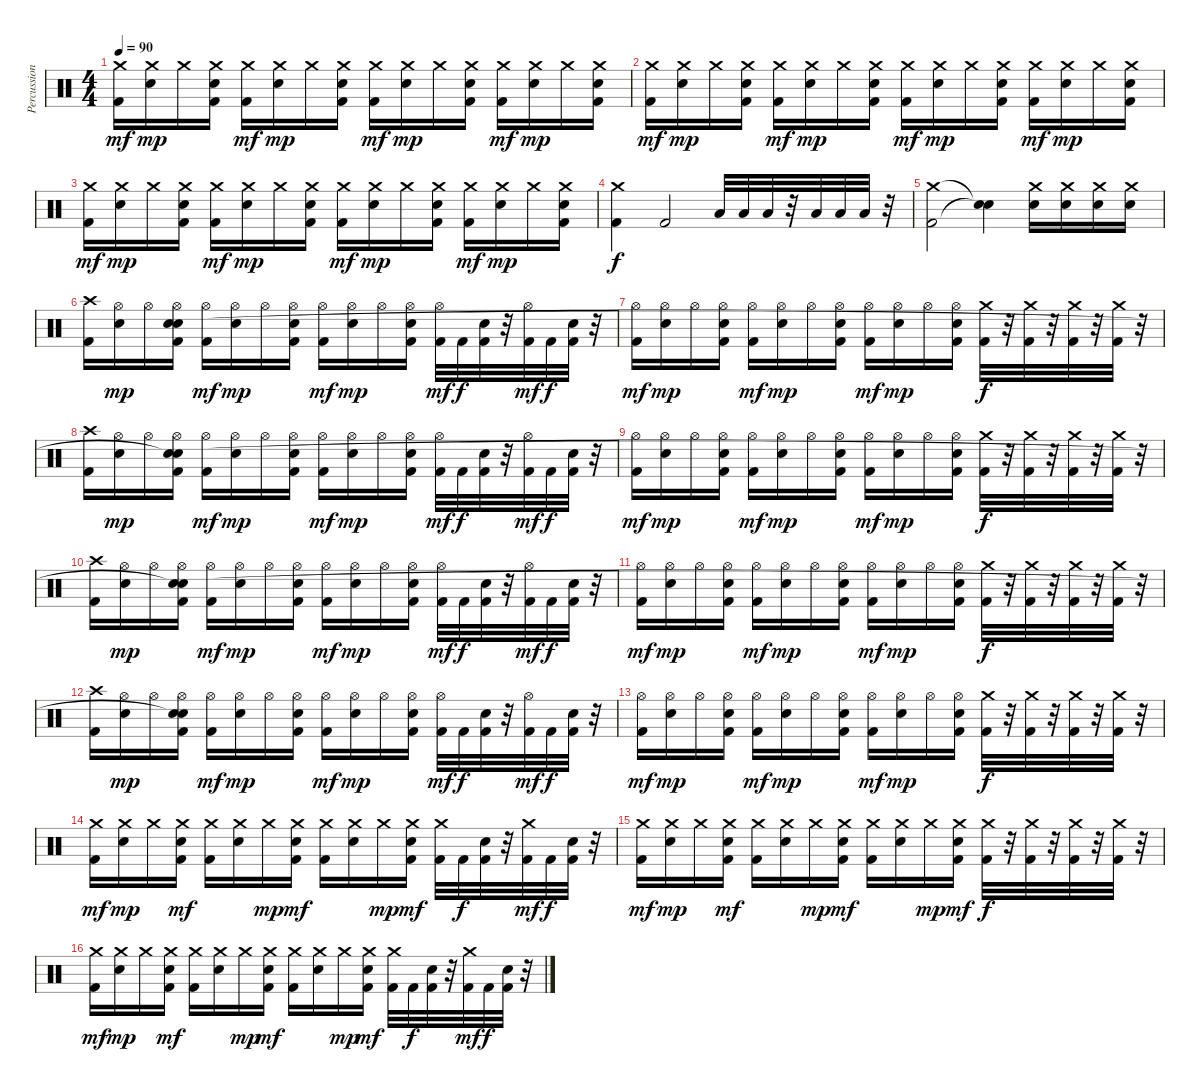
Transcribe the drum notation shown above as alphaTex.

\track ("Percussioni" "Percussion") {instrument percussion}
\staff {score}
\articulation defaults
\ts (4 4)
\tempo 90
\clef neutral
\ks c
("Kick (hit) 2" "Crash medium (hit)").16{dy mf} ("Electric Snare (hit)" "Crash medium (hit)").16{dy mp} "Crash medium (hit)".16 ("Kick (hit) 2" "Electric Snare (hit)" "Crash medium (hit)").16 ("Kick (hit) 2" "Crash medium (hit)").16{dy mf} ("Electric Snare (hit)" "Crash medium (hit)").16{dy mp} "Crash medium (hit)".16 ("Kick (hit) 2" "Electric Snare (hit)" "Crash medium (hit)").16 ("Kick (hit) 2" "Crash medium (hit)").16{dy mf} ("Electric Snare (hit)" "Crash medium (hit)").16{dy mp} "Crash medium (hit)".16 ("Kick (hit) 2" "Electric Snare (hit)" "Crash medium (hit)").16 ("Kick (hit) 2" "Crash medium (hit)").16{dy mf} ("Electric Snare (hit)" "Crash medium (hit)").16{dy mp} "Crash medium (hit)".16 ("Kick (hit) 2" "Electric Snare (hit)" "Crash medium (hit)").16 |
("Kick (hit) 2" "Crash medium (hit)").16{dy mf} ("Electric Snare (hit)" "Crash medium (hit)").16{dy mp} "Crash medium (hit)".16 ("Kick (hit) 2" "Electric Snare (hit)" "Crash medium (hit)").16 ("Kick (hit) 2" "Crash medium (hit)").16{dy mf} ("Electric Snare (hit)" "Crash medium (hit)").16{dy mp} "Crash medium (hit)".16 ("Kick (hit) 2" "Electric Snare (hit)" "Crash medium (hit)").16 ("Kick (hit) 2" "Crash medium (hit)").16{dy mf} ("Electric Snare (hit)" "Crash medium (hit)").16{dy mp} "Crash medium (hit)".16 ("Kick (hit) 2" "Electric Snare (hit)" "Crash medium (hit)").16 ("Kick (hit) 2" "Crash medium (hit)").16{dy mf} ("Electric Snare (hit)" "Crash medium (hit)").16{dy mp} "Crash medium (hit)".16 ("Kick (hit) 2" "Electric Snare (hit)" "Crash medium (hit)").16 |
("Kick (hit) 2" "Crash medium (hit)").16{dy mf} ("Electric Snare (hit)" "Crash medium (hit)").16{dy mp} "Crash medium (hit)".16 ("Kick (hit) 2" "Electric Snare (hit)" "Crash medium (hit)").16 ("Kick (hit) 2" "Crash medium (hit)").16{dy mf} ("Electric Snare (hit)" "Crash medium (hit)").16{dy mp} "Crash medium (hit)".16 ("Kick (hit) 2" "Electric Snare (hit)" "Crash medium (hit)").16 ("Kick (hit) 2" "Crash medium (hit)").16{dy mf} ("Electric Snare (hit)" "Crash medium (hit)").16{dy mp} "Crash medium (hit)".16 ("Kick (hit) 2" "Electric Snare (hit)" "Crash medium (hit)").16 ("Kick (hit) 2" "Crash medium (hit)").16{dy mf} ("Electric Snare (hit)" "Crash medium (hit)").16{dy mp} "Crash medium (hit)".16 ("Kick (hit) 2" "Electric Snare (hit)" "Crash medium (hit)").16 |
("Kick (hit) 2" "Crash medium (hit)").4{dy f} "Kick (hit) 2".2 "Low Tom (hit)".32 "Low Tom (hit)".32 "Low Tom (hit)".32 r.32 "Low Tom (hit)".32 "Low Tom (hit)".32 "Low Tom (hit)".32 r.32 |
("Kick (hit) 2" "Crash medium (hit)").2 ("Snare (hit)"{t} "Snare (hit)"{t}).4 ("Electric Snare (hit)" "Crash medium (hit)").16 ("Electric Snare (hit)" "Crash medium (hit)").16 ("Electric Snare (hit)" "Crash medium (hit)").16 ("Electric Snare (hit)" "Crash medium (hit)").16 |
("Kick (hit) 2" "Crash high (hit)").16 ("Electric Snare (hit)" "Hi-Hat (open)").16{dy mp} "Hi-Hat (open)".16 ("Kick (hit) 2" "Electric Snare (hit)" "Hi-Hat (open)" "Snare (hit)").16 ("Kick (hit) 2" "Hi-Hat (open)").16{dy mf} ("Electric Snare (hit)" "Hi-Hat (open)").16{dy mp} "Hi-Hat (open)".16 ("Kick (hit) 2" "Electric Snare (hit)" "Hi-Hat (open)").16 ("Kick (hit) 2" "Hi-Hat (open)").16{dy mf} ("Electric Snare (hit)" "Hi-Hat (open)").16{dy mp} "Hi-Hat (open)".16 ("Kick (hit) 2" "Electric Snare (hit)" "Hi-Hat (open)").16 ("Kick (hit) 2" "Hi-Hat (open)").32{dy mf} "Kick (hit) 2".32{dy f} ("Kick (hit) 2" "Electric Snare (hit)").32 r.32 ("Kick (hit) 2" "Hi-Hat (open)").32{dy mf} "Kick (hit) 2".32{dy f} ("Kick (hit) 2" "Electric Snare (hit)").32 r.32 |
("Kick (hit) 2" "Hi-Hat (open)").16{dy mf} ("Electric Snare (hit)" "Hi-Hat (open)").16{dy mp} "Hi-Hat (open)".16 ("Kick (hit) 2" "Electric Snare (hit)" "Hi-Hat (open)").16 ("Kick (hit) 2" "Hi-Hat (open)").16{dy mf} ("Electric Snare (hit)" "Hi-Hat (open)").16{dy mp} "Hi-Hat (open)".16 ("Kick (hit) 2" "Electric Snare (hit)" "Hi-Hat (open)").16 ("Kick (hit) 2" "Hi-Hat (open)").16{dy mf} ("Electric Snare (hit)" "Hi-Hat (open)").16{dy mp} "Hi-Hat (open)".16 ("Kick (hit) 2" "Electric Snare (hit)" "Hi-Hat (open)").16 ("Kick (hit) 2" "Crash medium (hit)").32{dy f} r.32 ("Kick (hit) 2" "Crash medium (hit)").32 r.32 ("Kick (hit) 2" "Crash medium (hit)").32 r.32 ("Kick (hit) 2" "Crash medium (hit)").32 r.32 |
("Kick (hit) 2" "Crash high (hit)").16 ("Electric Snare (hit)" "Hi-Hat (open)").16{dy mp} "Hi-Hat (open)".16 ("Kick (hit) 2" "Electric Snare (hit)" "Hi-Hat (open)" "Snare (hit)"{t}).16 ("Kick (hit) 2" "Hi-Hat (open)").16{dy mf} ("Electric Snare (hit)" "Hi-Hat (open)").16{dy mp} "Hi-Hat (open)".16 ("Kick (hit) 2" "Electric Snare (hit)" "Hi-Hat (open)").16 ("Kick (hit) 2" "Hi-Hat (open)").16{dy mf} ("Electric Snare (hit)" "Hi-Hat (open)").16{dy mp} "Hi-Hat (open)".16 ("Kick (hit) 2" "Electric Snare (hit)" "Hi-Hat (open)").16 ("Kick (hit) 2" "Hi-Hat (open)").32{dy mf} "Kick (hit) 2".32{dy f} ("Kick (hit) 2" "Electric Snare (hit)").32 r.32 ("Kick (hit) 2" "Hi-Hat (open)").32{dy mf} "Kick (hit) 2".32{dy f} ("Kick (hit) 2" "Electric Snare (hit)").32 r.32 |
("Kick (hit) 2" "Hi-Hat (open)").16{dy mf} ("Electric Snare (hit)" "Hi-Hat (open)").16{dy mp} "Hi-Hat (open)".16 ("Kick (hit) 2" "Electric Snare (hit)" "Hi-Hat (open)").16 ("Kick (hit) 2" "Hi-Hat (open)").16{dy mf} ("Electric Snare (hit)" "Hi-Hat (open)").16{dy mp} "Hi-Hat (open)".16 ("Kick (hit) 2" "Electric Snare (hit)" "Hi-Hat (open)").16 ("Kick (hit) 2" "Hi-Hat (open)").16{dy mf} ("Electric Snare (hit)" "Hi-Hat (open)").16{dy mp} "Hi-Hat (open)".16 ("Kick (hit) 2" "Electric Snare (hit)" "Hi-Hat (open)").16 ("Kick (hit) 2" "Crash medium (hit)").32{dy f} r.32 ("Kick (hit) 2" "Crash medium (hit)").32 r.32 ("Kick (hit) 2" "Crash medium (hit)").32 r.32 ("Kick (hit) 2" "Crash medium (hit)").32 r.32 |
("Kick (hit) 2" "Crash high (hit)").16 ("Electric Snare (hit)" "Hi-Hat (open)").16{dy mp} "Hi-Hat (open)".16 ("Kick (hit) 2" "Electric Snare (hit)" "Hi-Hat (open)" "Snare (hit)"{t}).16 ("Kick (hit) 2" "Hi-Hat (open)").16{dy mf} ("Electric Snare (hit)" "Hi-Hat (open)").16{dy mp} "Hi-Hat (open)".16 ("Kick (hit) 2" "Electric Snare (hit)" "Hi-Hat (open)").16 ("Kick (hit) 2" "Hi-Hat (open)").16{dy mf} ("Electric Snare (hit)" "Hi-Hat (open)").16{dy mp} "Hi-Hat (open)".16 ("Kick (hit) 2" "Electric Snare (hit)" "Hi-Hat (open)").16 ("Kick (hit) 2" "Hi-Hat (open)").32{dy mf} "Kick (hit) 2".32{dy f} ("Kick (hit) 2" "Electric Snare (hit)").32 r.32 ("Kick (hit) 2" "Hi-Hat (open)").32{dy mf} "Kick (hit) 2".32{dy f} ("Kick (hit) 2" "Electric Snare (hit)").32 r.32 |
("Kick (hit) 2" "Hi-Hat (open)").16{dy mf} ("Electric Snare (hit)" "Hi-Hat (open)").16{dy mp} "Hi-Hat (open)".16 ("Kick (hit) 2" "Electric Snare (hit)" "Hi-Hat (open)").16 ("Kick (hit) 2" "Hi-Hat (open)").16{dy mf} ("Electric Snare (hit)" "Hi-Hat (open)").16{dy mp} "Hi-Hat (open)".16 ("Kick (hit) 2" "Electric Snare (hit)" "Hi-Hat (open)").16 ("Kick (hit) 2" "Hi-Hat (open)").16{dy mf} ("Electric Snare (hit)" "Hi-Hat (open)").16{dy mp} "Hi-Hat (open)".16 ("Kick (hit) 2" "Electric Snare (hit)" "Hi-Hat (open)").16 ("Kick (hit) 2" "Crash medium (hit)").32{dy f} r.32 ("Kick (hit) 2" "Crash medium (hit)").32 r.32 ("Kick (hit) 2" "Crash medium (hit)").32 r.32 ("Kick (hit) 2" "Crash medium (hit)").32 r.32 |
("Kick (hit) 2" "Crash high (hit)").16 ("Electric Snare (hit)" "Hi-Hat (open)").16{dy mp} "Hi-Hat (open)".16 ("Kick (hit) 2" "Electric Snare (hit)" "Hi-Hat (open)" "Snare (hit)"{t}).16 ("Kick (hit) 2" "Hi-Hat (open)").16{dy mf} ("Electric Snare (hit)" "Hi-Hat (open)").16{dy mp} "Hi-Hat (open)".16 ("Kick (hit) 2" "Electric Snare (hit)" "Hi-Hat (open)").16 ("Kick (hit) 2" "Hi-Hat (open)").16{dy mf} ("Electric Snare (hit)" "Hi-Hat (open)").16{dy mp} "Hi-Hat (open)".16 ("Kick (hit) 2" "Electric Snare (hit)" "Hi-Hat (open)").16 ("Kick (hit) 2" "Hi-Hat (open)").32{dy mf} "Kick (hit) 2".32{dy f} ("Kick (hit) 2" "Electric Snare (hit)").32 r.32 ("Kick (hit) 2" "Hi-Hat (open)").32{dy mf} "Kick (hit) 2".32{dy f} ("Kick (hit) 2" "Electric Snare (hit)").32 r.32 |
("Kick (hit) 2" "Hi-Hat (open)").16{dy mf} ("Electric Snare (hit)" "Hi-Hat (open)").16{dy mp} "Hi-Hat (open)".16 ("Kick (hit) 2" "Electric Snare (hit)" "Hi-Hat (open)").16 ("Kick (hit) 2" "Hi-Hat (open)").16{dy mf} ("Electric Snare (hit)" "Hi-Hat (open)").16{dy mp} "Hi-Hat (open)".16 ("Kick (hit) 2" "Electric Snare (hit)" "Hi-Hat (open)").16 ("Kick (hit) 2" "Hi-Hat (open)").16{dy mf} ("Electric Snare (hit)" "Hi-Hat (open)").16{dy mp} "Hi-Hat (open)".16 ("Kick (hit) 2" "Electric Snare (hit)" "Hi-Hat (open)").16 ("Kick (hit) 2" "Crash medium (hit)").32{dy f} r.32 ("Kick (hit) 2" "Crash medium (hit)").32 r.32 ("Kick (hit) 2" "Crash medium (hit)").32 r.32 ("Kick (hit) 2" "Crash medium (hit)").32 r.32 |
("Kick (hit) 2" "Crash medium (hit)").16{dy mf} ("Electric Snare (hit)" "Crash medium (hit)").16{dy mp} "Crash medium (hit)".16 ("Kick (hit) 2" "Electric Snare (hit)" "Crash medium (hit)").16{dy mf} ("Kick (hit) 2" "Crash medium (hit)").16 ("Electric Snare (hit)" "Crash medium (hit)").16 "Crash medium (hit)".16{dy mp} ("Kick (hit) 2" "Electric Snare (hit)" "Crash medium (hit)").16{dy mf} ("Kick (hit) 2" "Crash medium (hit)").16 ("Electric Snare (hit)" "Crash medium (hit)").16 "Crash medium (hit)".16{dy mp} ("Kick (hit) 2" "Electric Snare (hit)" "Crash medium (hit)").16{dy mf} ("Kick (hit) 2" "Crash medium (hit)").32 "Kick (hit) 2".32{dy f} ("Kick (hit) 2" "Electric Snare (hit)").32 r.32 ("Kick (hit) 2" "Crash medium (hit)").32{dy mf} "Kick (hit) 2".32{dy f} ("Kick (hit) 2" "Electric Snare (hit)").32 r.32 |
("Kick (hit) 2" "Crash medium (hit)").16{dy mf} ("Electric Snare (hit)" "Crash medium (hit)").16{dy mp} "Crash medium (hit)".16 ("Kick (hit) 2" "Electric Snare (hit)" "Crash medium (hit)").16{dy mf} ("Kick (hit) 2" "Crash medium (hit)").16 ("Electric Snare (hit)" "Crash medium (hit)").16 "Crash medium (hit)".16{dy mp} ("Kick (hit) 2" "Electric Snare (hit)" "Crash medium (hit)").16{dy mf} ("Kick (hit) 2" "Crash medium (hit)").16 ("Electric Snare (hit)" "Crash medium (hit)").16 "Crash medium (hit)".16{dy mp} ("Kick (hit) 2" "Electric Snare (hit)" "Crash medium (hit)").16{dy mf} ("Kick (hit) 2" "Crash medium (hit)").32{dy f} r.32 ("Kick (hit) 2" "Crash medium (hit)").32 r.32 ("Kick (hit) 2" "Crash medium (hit)").32 r.32 ("Kick (hit) 2" "Crash medium (hit)").32 r.32 |
("Kick (hit) 2" "Crash medium (hit)").16{dy mf} ("Electric Snare (hit)" "Crash medium (hit)").16{dy mp} "Crash medium (hit)".16 ("Kick (hit) 2" "Electric Snare (hit)" "Crash medium (hit)").16{dy mf} ("Kick (hit) 2" "Crash medium (hit)").16 ("Electric Snare (hit)" "Crash medium (hit)").16 "Crash medium (hit)".16{dy mp} ("Kick (hit) 2" "Electric Snare (hit)" "Crash medium (hit)").16{dy mf} ("Kick (hit) 2" "Crash medium (hit)").16 ("Electric Snare (hit)" "Crash medium (hit)").16 "Crash medium (hit)".16{dy mp} ("Kick (hit) 2" "Electric Snare (hit)" "Crash medium (hit)").16{dy mf} ("Kick (hit) 2" "Crash medium (hit)").32 "Kick (hit) 2".32{dy f} ("Kick (hit) 2" "Electric Snare (hit)").32 r.32 ("Kick (hit) 2" "Crash medium (hit)").32{dy mf} "Kick (hit) 2".32{dy f} ("Kick (hit) 2" "Electric Snare (hit)").32 r.32
